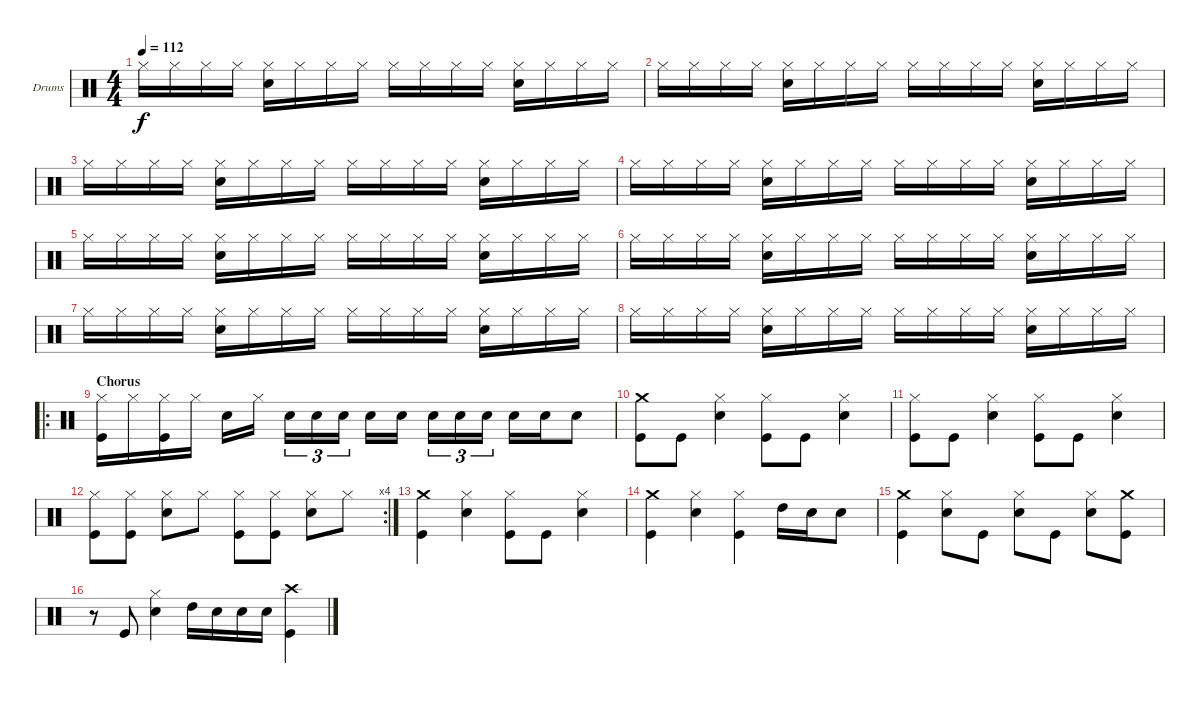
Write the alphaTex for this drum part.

\defaultSystemsLayout 4
\bracketExtendMode groupsimilarinstruments
\firstSystemTrackNameOrientation horizontal
\otherSystemsTrackNameOrientation horizontal
\track ("Drumkit" "Drums") {instrument percussion}
\staff {score}
\articulation defaults
\ts (4 4)
\tempo 112
\clef neutral
\ks c "Hi-Hat (closed)".16{dy f} "Hi-Hat (closed)".16 "Hi-Hat (closed)".16 "Hi-Hat (closed)".16
("Hi-Hat (closed)" "Snare (hit) 2").16 "Hi-Hat (closed)".16 "Hi-Hat (closed)".16 "Hi-Hat (closed)".16 "Hi-Hat (closed)".16 "Hi-Hat (closed)".16 "Hi-Hat (closed)".16 "Hi-Hat (closed)".16 ("Hi-Hat (closed)" "Snare (hit) 2").16 "Hi-Hat (closed)".16 "Hi-Hat (closed)".16 "Hi-Hat (closed)".16 |
"Hi-Hat (closed)".16 "Hi-Hat (closed)".16 "Hi-Hat (closed)".16 "Hi-Hat (closed)".16 ("Hi-Hat (closed)" "Snare (hit) 2").16 "Hi-Hat (closed)".16 "Hi-Hat (closed)".16 "Hi-Hat (closed)".16 "Hi-Hat (closed)".16 "Hi-Hat (closed)".16 "Hi-Hat (closed)".16 "Hi-Hat (closed)".16 ("Hi-Hat (closed)" "Snare (hit) 2").16 "Hi-Hat (closed)".16 "Hi-Hat (closed)".16 "Hi-Hat (closed)".16 |
"Hi-Hat (closed)".16 "Hi-Hat (closed)".16 "Hi-Hat (closed)".16 "Hi-Hat (closed)".16 ("Hi-Hat (closed)" "Snare (hit) 2").16 "Hi-Hat (closed)".16 "Hi-Hat (closed)".16 "Hi-Hat (closed)".16 "Hi-Hat (closed)".16 "Hi-Hat (closed)".16 "Hi-Hat (closed)".16 "Hi-Hat (closed)".16 ("Hi-Hat (closed)" "Snare (hit) 2").16 "Hi-Hat (closed)".16 "Hi-Hat (closed)".16 "Hi-Hat (closed)".16 |
"Hi-Hat (closed)".16 "Hi-Hat (closed)".16 "Hi-Hat (closed)".16 "Hi-Hat (closed)".16 ("Hi-Hat (closed)" "Snare (hit) 2").16 "Hi-Hat (closed)".16 "Hi-Hat (closed)".16 "Hi-Hat (closed)".16 "Hi-Hat (closed)".16 "Hi-Hat (closed)".16 "Hi-Hat (closed)".16 "Hi-Hat (closed)".16 ("Hi-Hat (closed)" "Snare (hit) 2").16 "Hi-Hat (closed)".16 "Hi-Hat (closed)".16 "Hi-Hat (closed)".16 |
"Hi-Hat (closed)".16 "Hi-Hat (closed)".16 "Hi-Hat (closed)".16 "Hi-Hat (closed)".16 ("Hi-Hat (closed)" "Snare (hit) 2").16 "Hi-Hat (closed)".16 "Hi-Hat (closed)".16 "Hi-Hat (closed)".16 "Hi-Hat (closed)".16 "Hi-Hat (closed)".16 "Hi-Hat (closed)".16 "Hi-Hat (closed)".16 ("Hi-Hat (closed)" "Snare (hit) 2").16 "Hi-Hat (closed)".16 "Hi-Hat (closed)".16 "Hi-Hat (closed)".16 |
"Hi-Hat (closed)".16 "Hi-Hat (closed)".16 "Hi-Hat (closed)".16 "Hi-Hat (closed)".16 ("Hi-Hat (closed)" "Snare (hit) 2").16 "Hi-Hat (closed)".16 "Hi-Hat (closed)".16 "Hi-Hat (closed)".16 "Hi-Hat (closed)".16 "Hi-Hat (closed)".16 "Hi-Hat (closed)".16 "Hi-Hat (closed)".16 ("Hi-Hat (closed)" "Snare (hit) 2").16 "Hi-Hat (closed)".16 "Hi-Hat (closed)".16 "Hi-Hat (closed)".16 |
"Hi-Hat (closed)".16 "Hi-Hat (closed)".16 "Hi-Hat (closed)".16 "Hi-Hat (closed)".16 ("Hi-Hat (closed)" "Snare (hit) 2").16 "Hi-Hat (closed)".16 "Hi-Hat (closed)".16 "Hi-Hat (closed)".16 "Hi-Hat (closed)".16 "Hi-Hat (closed)".16 "Hi-Hat (closed)".16 "Hi-Hat (closed)".16 ("Hi-Hat (closed)" "Snare (hit) 2").16 "Hi-Hat (closed)".16 "Hi-Hat (closed)".16 "Hi-Hat (closed)".16 |
"Hi-Hat (closed)".16 "Hi-Hat (closed)".16 "Hi-Hat (closed)".16 "Hi-Hat (closed)".16 ("Hi-Hat (closed)" "Snare (hit) 2").16 "Hi-Hat (closed)".16 "Hi-Hat (closed)".16 "Hi-Hat (closed)".16 "Hi-Hat (closed)".16 "Hi-Hat (closed)".16 "Hi-Hat (closed)".16 "Hi-Hat (closed)".16 ("Hi-Hat (closed)" "Snare (hit) 2").16 "Hi-Hat (closed)".16 "Hi-Hat (closed)".16 "Hi-Hat (closed)".16 |
\ro
\section ("" "Chorus")
("Hi-Hat (closed)" "Kick (hit)").16 "Hi-Hat (closed)".16 ("Hi-Hat (closed)" "Kick (hit)").16 "Hi-Hat (closed)".16 "Snare (hit) 2".16 "Hi-Hat (closed)".16 "Snare (hit) 2".16{tu (3 2)} "Snare (hit) 2".16{tu (3 2)} "Snare (hit) 2".16{tu (3 2)} "Snare (hit) 2".16 "Snare (hit) 2".16 "Snare (hit) 2".16{tu (3 2)} "Snare (hit) 2".16{tu (3 2)} "Snare (hit) 2".16{tu (3 2)} "Snare (hit) 2".16 "Snare (hit) 2".16 "Snare (hit) 2".8 |
("Crash medium (hit)" "Kick (hit)").8 "Kick (hit)".8 ("Hi-Hat (closed)" "Snare (hit) 2").4 ("Hi-Hat (closed)" "Kick (hit)").8 "Kick (hit)".8 ("Hi-Hat (closed)" "Snare (hit) 2").4 |
("Hi-Hat (closed)" "Kick (hit)").8 "Kick (hit)".8 ("Hi-Hat (closed)" "Snare (hit) 2").4 ("Hi-Hat (closed)" "Kick (hit)").8 "Kick (hit)".8 ("Hi-Hat (closed)" "Snare (hit) 2").4 |
\rc 4
("Hi-Hat (closed)" "Kick (hit)").8 ("Hi-Hat (closed)" "Kick (hit)").8 ("Hi-Hat (closed)" "Snare (hit) 2").8 "Hi-Hat (closed)".8 ("Hi-Hat (closed)" "Kick (hit)").8 ("Hi-Hat (closed)" "Kick (hit)").8 ("Hi-Hat (closed)" "Snare (hit) 2").8 "Hi-Hat (closed)".8 |
("Crash medium (hit)" "Kick (hit)").4 ("Hi-Hat (closed)" "Snare (hit) 2").4 ("Hi-Hat (closed)" "Kick (hit)").8 "Kick (hit)".8 ("Hi-Hat (closed)" "Snare (hit) 2").4 |
("Crash medium (hit)" "Kick (hit)").4 ("Hi-Hat (closed)" "Snare (hit) 2").4 ("Hi-Hat (closed)" "Kick (hit)").4 "High Tom (hit)".16 "Snare (hit) 2".16 "Snare (hit) 2".8 |
("Crash medium (hit)" "Kick (hit)").4 ("Hi-Hat (closed)" "Snare (hit) 2").8 "Kick (hit)".8 ("Hi-Hat (closed)" "Snare (hit) 2").8 "Kick (hit)".8 ("Hi-Hat (closed)" "Snare (hit) 2").8 ("Crash medium (hit)" "Kick (hit)").8 |
r.8 "Kick (hit)".8 ("Hi-Hat (closed)" "Snare (hit) 2").4 "High Tom (hit)".16 "Snare (hit) 2".16 "Snare (hit) 2".16 "Snare (hit) 2".16 ("Crash high (hit)" "Kick (hit)").4
